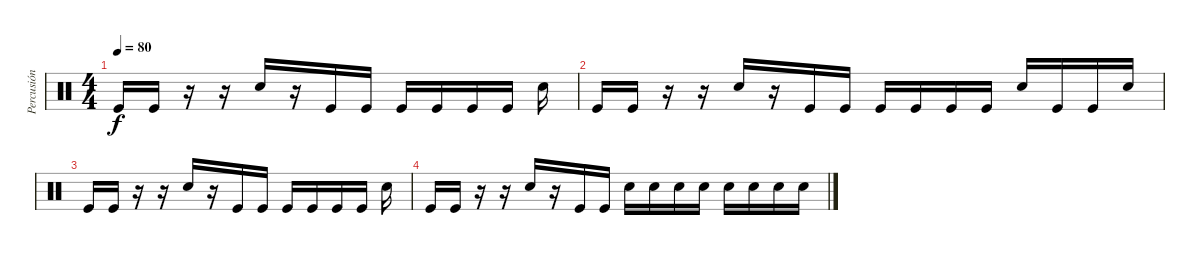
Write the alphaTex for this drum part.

\track ("Percusión" "Percusión") {instrument percussion}
\staff {score}
\articulation defaults
\ts (4 4)
\tempo 80
\clef neutral
\ks c "Kick (hit)".16{dy f} "Kick (hit)".16
r.16 r.16 "Snare (hit) 2".16 r.16 "Kick (hit)".16 "Kick (hit)".16 "Kick (hit)".16 "Kick (hit)".16 "Kick (hit)".16 "Kick (hit)".16 "Snare (hit) 2".16 |
"Kick (hit)".16 "Kick (hit)".16 r.16 r.16 "Snare (hit) 2".16 r.16 "Kick (hit)".16 "Kick (hit)".16 "Kick (hit)".16 "Kick (hit)".16 "Kick (hit)".16 "Kick (hit)".16 "Snare (hit) 2".16 "Kick (hit)".16 "Kick (hit)".16 "Snare (hit) 2".16 |
"Kick (hit)".16 "Kick (hit)".16 r.16 r.16 "Snare (hit) 2".16 r.16 "Kick (hit)".16 "Kick (hit)".16 "Kick (hit)".16 "Kick (hit)".16 "Kick (hit)".16 "Kick (hit)".16 "Snare (hit) 2".16 |
"Kick (hit)".16 "Kick (hit)".16 r.16 r.16 "Snare (hit) 2".16 r.16 "Kick (hit)".16 "Kick (hit)".16 "Snare (hit) 2".16 "Snare (hit) 2".16 "Snare (hit) 2".16 "Snare (hit) 2".16 "Snare (hit) 2".16 "Snare (hit) 2".16 "Snare (hit) 2".16 "Snare (hit) 2".16
